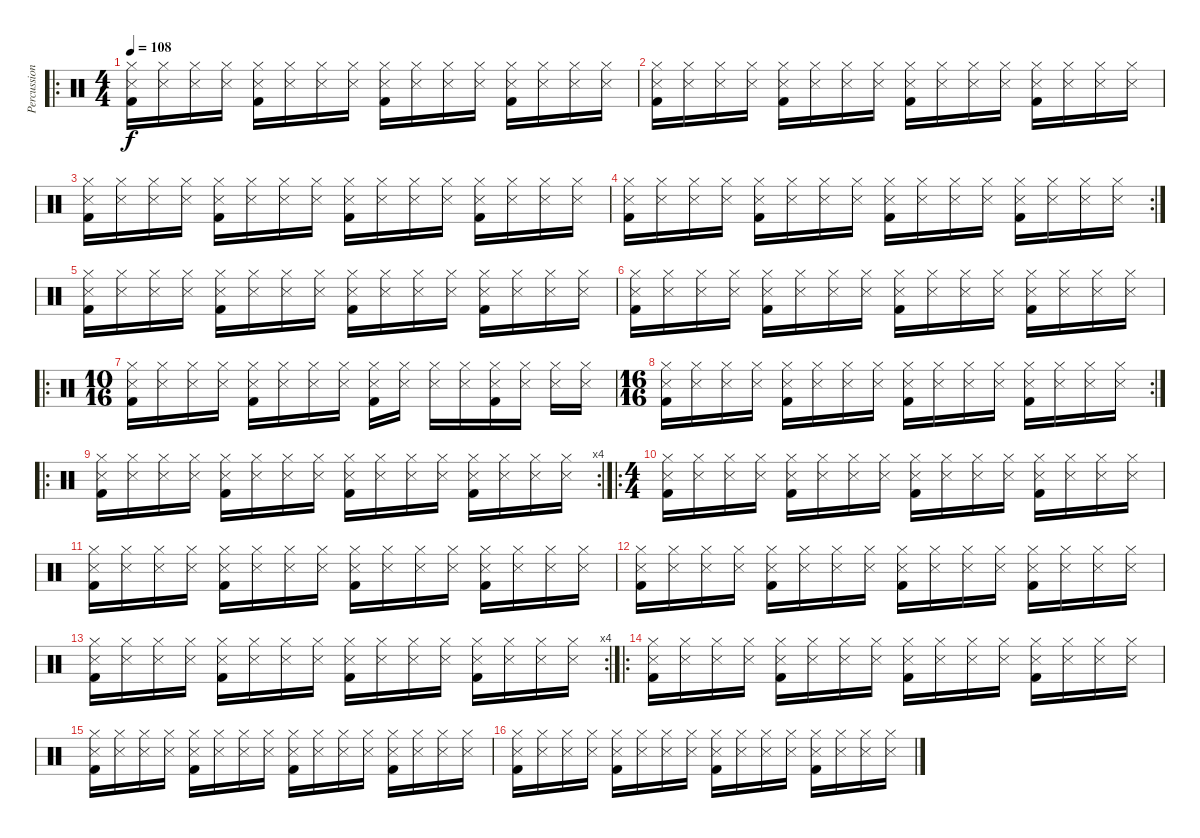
\track ("Percussions" "Percussion") {instrument percussion}
\staff {score}
\articulation defaults
\ro
\ts (4 4)
\tempo 108
\clef neutral
\ks c
("Kick (hit) 2" "Hi-Hat (closed)" "Snare (side stick) 3").16{dy f} ("Hi-Hat (closed)" "Snare (side stick) 3").16 ("Hi-Hat (closed)" "Snare (side stick) 3").16 ("Hi-Hat (closed)" "Snare (side stick) 3").16 ("Kick (hit) 2" "Hi-Hat (closed)" "Snare (side stick) 3").16 ("Hi-Hat (closed)" "Snare (side stick) 3").16 ("Hi-Hat (closed)" "Snare (side stick) 3").16 ("Hi-Hat (closed)" "Snare (side stick) 3").16 ("Kick (hit) 2" "Hi-Hat (closed)" "Snare (side stick) 3").16 ("Hi-Hat (closed)" "Snare (side stick) 3").16 ("Hi-Hat (closed)" "Snare (side stick) 3").16 ("Hi-Hat (closed)" "Snare (side stick) 3").16 ("Kick (hit) 2" "Hi-Hat (closed)" "Snare (side stick) 3").16 ("Hi-Hat (closed)" "Snare (side stick) 3").16 ("Hi-Hat (closed)" "Snare (side stick) 3").16 ("Hi-Hat (closed)" "Snare (side stick) 3").16 |
("Kick (hit) 2" "Hi-Hat (closed)" "Snare (side stick) 3").16 ("Hi-Hat (closed)" "Snare (side stick) 3").16 ("Hi-Hat (closed)" "Snare (side stick) 3").16 ("Hi-Hat (closed)" "Snare (side stick) 3").16 ("Kick (hit) 2" "Hi-Hat (closed)" "Snare (side stick) 3").16 ("Hi-Hat (closed)" "Snare (side stick) 3").16 ("Hi-Hat (closed)" "Snare (side stick) 3").16 ("Hi-Hat (closed)" "Snare (side stick) 3").16 ("Kick (hit) 2" "Hi-Hat (closed)" "Snare (side stick) 3").16 ("Hi-Hat (closed)" "Snare (side stick) 3").16 ("Hi-Hat (closed)" "Snare (side stick) 3").16 ("Hi-Hat (closed)" "Snare (side stick) 3").16 ("Kick (hit) 2" "Hi-Hat (closed)" "Snare (side stick) 3").16 ("Hi-Hat (closed)" "Snare (side stick) 3").16 ("Hi-Hat (closed)" "Snare (side stick) 3").16 ("Hi-Hat (closed)" "Snare (side stick) 3").16 |
("Kick (hit) 2" "Hi-Hat (closed)" "Snare (side stick) 3").16 ("Hi-Hat (closed)" "Snare (side stick) 3").16 ("Hi-Hat (closed)" "Snare (side stick) 3").16 ("Hi-Hat (closed)" "Snare (side stick) 3").16 ("Kick (hit) 2" "Hi-Hat (closed)" "Snare (side stick) 3").16 ("Hi-Hat (closed)" "Snare (side stick) 3").16 ("Hi-Hat (closed)" "Snare (side stick) 3").16 ("Hi-Hat (closed)" "Snare (side stick) 3").16 ("Kick (hit) 2" "Hi-Hat (closed)" "Snare (side stick) 3").16 ("Hi-Hat (closed)" "Snare (side stick) 3").16 ("Hi-Hat (closed)" "Snare (side stick) 3").16 ("Hi-Hat (closed)" "Snare (side stick) 3").16 ("Kick (hit) 2" "Hi-Hat (closed)" "Snare (side stick) 3").16 ("Hi-Hat (closed)" "Snare (side stick) 3").16 ("Hi-Hat (closed)" "Snare (side stick) 3").16 ("Hi-Hat (closed)" "Snare (side stick) 3").16 |
\rc 2
("Kick (hit) 2" "Hi-Hat (closed)" "Snare (side stick) 3").16 ("Hi-Hat (closed)" "Snare (side stick) 3").16 ("Hi-Hat (closed)" "Snare (side stick) 3").16 ("Hi-Hat (closed)" "Snare (side stick) 3").16 ("Kick (hit) 2" "Hi-Hat (closed)" "Snare (side stick) 3").16 ("Hi-Hat (closed)" "Snare (side stick) 3").16 ("Hi-Hat (closed)" "Snare (side stick) 3").16 ("Hi-Hat (closed)" "Snare (side stick) 3").16 ("Kick (hit) 2" "Hi-Hat (closed)" "Snare (side stick) 3").16 ("Hi-Hat (closed)" "Snare (side stick) 3").16 ("Hi-Hat (closed)" "Snare (side stick) 3").16 ("Hi-Hat (closed)" "Snare (side stick) 3").16 ("Kick (hit) 2" "Hi-Hat (closed)" "Snare (side stick) 3").16 ("Hi-Hat (closed)" "Snare (side stick) 3").16 ("Hi-Hat (closed)" "Snare (side stick) 3").16 ("Hi-Hat (closed)" "Snare (side stick) 3").16 |
("Kick (hit) 2" "Hi-Hat (closed)" "Snare (side stick) 3").16 ("Hi-Hat (closed)" "Snare (side stick) 3").16 ("Hi-Hat (closed)" "Snare (side stick) 3").16 ("Hi-Hat (closed)" "Snare (side stick) 3").16 ("Kick (hit) 2" "Hi-Hat (closed)" "Snare (side stick) 3").16 ("Hi-Hat (closed)" "Snare (side stick) 3").16 ("Hi-Hat (closed)" "Snare (side stick) 3").16 ("Hi-Hat (closed)" "Snare (side stick) 3").16 ("Kick (hit) 2" "Hi-Hat (closed)" "Snare (side stick) 3").16 ("Hi-Hat (closed)" "Snare (side stick) 3").16 ("Hi-Hat (closed)" "Snare (side stick) 3").16 ("Hi-Hat (closed)" "Snare (side stick) 3").16 ("Kick (hit) 2" "Hi-Hat (closed)" "Snare (side stick) 3").16 ("Hi-Hat (closed)" "Snare (side stick) 3").16 ("Hi-Hat (closed)" "Snare (side stick) 3").16 ("Hi-Hat (closed)" "Snare (side stick) 3").16 |
("Kick (hit) 2" "Hi-Hat (closed)" "Snare (side stick) 3").16 ("Hi-Hat (closed)" "Snare (side stick) 3").16 ("Hi-Hat (closed)" "Snare (side stick) 3").16 ("Hi-Hat (closed)" "Snare (side stick) 3").16 ("Kick (hit) 2" "Hi-Hat (closed)" "Snare (side stick) 3").16 ("Hi-Hat (closed)" "Snare (side stick) 3").16 ("Hi-Hat (closed)" "Snare (side stick) 3").16 ("Hi-Hat (closed)" "Snare (side stick) 3").16 ("Kick (hit) 2" "Hi-Hat (closed)" "Snare (side stick) 3").16 ("Hi-Hat (closed)" "Snare (side stick) 3").16 ("Hi-Hat (closed)" "Snare (side stick) 3").16 ("Hi-Hat (closed)" "Snare (side stick) 3").16 ("Kick (hit) 2" "Hi-Hat (closed)" "Snare (side stick) 3").16 ("Hi-Hat (closed)" "Snare (side stick) 3").16 ("Hi-Hat (closed)" "Snare (side stick) 3").16 ("Hi-Hat (closed)" "Snare (side stick) 3").16 |
\ro
\ts (10 16)
("Kick (hit) 2" "Hi-Hat (closed)" "Snare (side stick) 3").16 ("Hi-Hat (closed)" "Snare (side stick) 3").16 ("Hi-Hat (closed)" "Snare (side stick) 3").16 ("Hi-Hat (closed)" "Snare (side stick) 3").16 ("Kick (hit) 2" "Hi-Hat (closed)" "Snare (side stick) 3").16 ("Hi-Hat (closed)" "Snare (side stick) 3").16 ("Hi-Hat (closed)" "Snare (side stick) 3").16 ("Hi-Hat (closed)" "Snare (side stick) 3").16 ("Kick (hit) 2" "Hi-Hat (closed)" "Snare (side stick) 3").16 ("Hi-Hat (closed)" "Snare (side stick) 3").16 ("Hi-Hat (closed)" "Snare (side stick) 3").16 ("Hi-Hat (closed)" "Snare (side stick) 3").16 ("Kick (hit) 2" "Hi-Hat (closed)" "Snare (side stick) 3").16 ("Hi-Hat (closed)" "Snare (side stick) 3").16 ("Hi-Hat (closed)" "Snare (side stick) 3").16 ("Hi-Hat (closed)" "Snare (side stick) 3").16 |
\rc 2
\ts (16 16)
("Kick (hit) 2" "Hi-Hat (closed)" "Snare (side stick) 3").16 ("Hi-Hat (closed)" "Snare (side stick) 3").16 ("Hi-Hat (closed)" "Snare (side stick) 3").16 ("Hi-Hat (closed)" "Snare (side stick) 3").16 ("Kick (hit) 2" "Hi-Hat (closed)" "Snare (side stick) 3").16 ("Hi-Hat (closed)" "Snare (side stick) 3").16 ("Hi-Hat (closed)" "Snare (side stick) 3").16 ("Hi-Hat (closed)" "Snare (side stick) 3").16 ("Kick (hit) 2" "Hi-Hat (closed)" "Snare (side stick) 3").16 ("Hi-Hat (closed)" "Snare (side stick) 3").16 ("Hi-Hat (closed)" "Snare (side stick) 3").16 ("Hi-Hat (closed)" "Snare (side stick) 3").16 ("Kick (hit) 2" "Hi-Hat (closed)" "Snare (side stick) 3").16 ("Hi-Hat (closed)" "Snare (side stick) 3").16 ("Hi-Hat (closed)" "Snare (side stick) 3").16 ("Hi-Hat (closed)" "Snare (side stick) 3").16 |
\ro
\rc 4
("Kick (hit) 2" "Hi-Hat (closed)" "Snare (side stick) 3").16 ("Hi-Hat (closed)" "Snare (side stick) 3").16 ("Hi-Hat (closed)" "Snare (side stick) 3").16 ("Hi-Hat (closed)" "Snare (side stick) 3").16 ("Kick (hit) 2" "Hi-Hat (closed)" "Snare (side stick) 3").16 ("Hi-Hat (closed)" "Snare (side stick) 3").16 ("Hi-Hat (closed)" "Snare (side stick) 3").16 ("Hi-Hat (closed)" "Snare (side stick) 3").16 ("Kick (hit) 2" "Hi-Hat (closed)" "Snare (side stick) 3").16 ("Hi-Hat (closed)" "Snare (side stick) 3").16 ("Hi-Hat (closed)" "Snare (side stick) 3").16 ("Hi-Hat (closed)" "Snare (side stick) 3").16 ("Kick (hit) 2" "Hi-Hat (closed)" "Snare (side stick) 3").16 ("Hi-Hat (closed)" "Snare (side stick) 3").16 ("Hi-Hat (closed)" "Snare (side stick) 3").16 ("Hi-Hat (closed)" "Snare (side stick) 3").16 |
\ro
\ts (4 4)
("Kick (hit) 2" "Hi-Hat (closed)" "Snare (side stick) 3").16 ("Hi-Hat (closed)" "Snare (side stick) 3").16 ("Hi-Hat (closed)" "Snare (side stick) 3").16 ("Hi-Hat (closed)" "Snare (side stick) 3").16 ("Kick (hit) 2" "Hi-Hat (closed)" "Snare (side stick) 3").16 ("Hi-Hat (closed)" "Snare (side stick) 3").16 ("Hi-Hat (closed)" "Snare (side stick) 3").16 ("Hi-Hat (closed)" "Snare (side stick) 3").16 ("Kick (hit) 2" "Hi-Hat (closed)" "Snare (side stick) 3").16 ("Hi-Hat (closed)" "Snare (side stick) 3").16 ("Hi-Hat (closed)" "Snare (side stick) 3").16 ("Hi-Hat (closed)" "Snare (side stick) 3").16 ("Kick (hit) 2" "Hi-Hat (closed)" "Snare (side stick) 3").16 ("Hi-Hat (closed)" "Snare (side stick) 3").16 ("Hi-Hat (closed)" "Snare (side stick) 3").16 ("Hi-Hat (closed)" "Snare (side stick) 3").16 |
("Kick (hit) 2" "Hi-Hat (closed)" "Snare (side stick) 3").16 ("Hi-Hat (closed)" "Snare (side stick) 3").16 ("Hi-Hat (closed)" "Snare (side stick) 3").16 ("Hi-Hat (closed)" "Snare (side stick) 3").16 ("Kick (hit) 2" "Hi-Hat (closed)" "Snare (side stick) 3").16 ("Hi-Hat (closed)" "Snare (side stick) 3").16 ("Hi-Hat (closed)" "Snare (side stick) 3").16 ("Hi-Hat (closed)" "Snare (side stick) 3").16 ("Kick (hit) 2" "Hi-Hat (closed)" "Snare (side stick) 3").16 ("Hi-Hat (closed)" "Snare (side stick) 3").16 ("Hi-Hat (closed)" "Snare (side stick) 3").16 ("Hi-Hat (closed)" "Snare (side stick) 3").16 ("Kick (hit) 2" "Hi-Hat (closed)" "Snare (side stick) 3").16 ("Hi-Hat (closed)" "Snare (side stick) 3").16 ("Hi-Hat (closed)" "Snare (side stick) 3").16 ("Hi-Hat (closed)" "Snare (side stick) 3").16 |
("Kick (hit) 2" "Hi-Hat (closed)" "Snare (side stick) 3").16 ("Hi-Hat (closed)" "Snare (side stick) 3").16 ("Hi-Hat (closed)" "Snare (side stick) 3").16 ("Hi-Hat (closed)" "Snare (side stick) 3").16 ("Kick (hit) 2" "Hi-Hat (closed)" "Snare (side stick) 3").16 ("Hi-Hat (closed)" "Snare (side stick) 3").16 ("Hi-Hat (closed)" "Snare (side stick) 3").16 ("Hi-Hat (closed)" "Snare (side stick) 3").16 ("Kick (hit) 2" "Hi-Hat (closed)" "Snare (side stick) 3").16 ("Hi-Hat (closed)" "Snare (side stick) 3").16 ("Hi-Hat (closed)" "Snare (side stick) 3").16 ("Hi-Hat (closed)" "Snare (side stick) 3").16 ("Kick (hit) 2" "Hi-Hat (closed)" "Snare (side stick) 3").16 ("Hi-Hat (closed)" "Snare (side stick) 3").16 ("Hi-Hat (closed)" "Snare (side stick) 3").16 ("Hi-Hat (closed)" "Snare (side stick) 3").16 |
\rc 4
("Kick (hit) 2" "Hi-Hat (closed)" "Snare (side stick) 3").16 ("Hi-Hat (closed)" "Snare (side stick) 3").16 ("Hi-Hat (closed)" "Snare (side stick) 3").16 ("Hi-Hat (closed)" "Snare (side stick) 3").16 ("Kick (hit) 2" "Hi-Hat (closed)" "Snare (side stick) 3").16 ("Hi-Hat (closed)" "Snare (side stick) 3").16 ("Hi-Hat (closed)" "Snare (side stick) 3").16 ("Hi-Hat (closed)" "Snare (side stick) 3").16 ("Kick (hit) 2" "Hi-Hat (closed)" "Snare (side stick) 3").16 ("Hi-Hat (closed)" "Snare (side stick) 3").16 ("Hi-Hat (closed)" "Snare (side stick) 3").16 ("Hi-Hat (closed)" "Snare (side stick) 3").16 ("Kick (hit) 2" "Hi-Hat (closed)" "Snare (side stick) 3").16 ("Hi-Hat (closed)" "Snare (side stick) 3").16 ("Hi-Hat (closed)" "Snare (side stick) 3").16 ("Hi-Hat (closed)" "Snare (side stick) 3").16 |
\ro
("Kick (hit) 2" "Hi-Hat (closed)" "Snare (side stick) 3").16 ("Hi-Hat (closed)" "Snare (side stick) 3").16 ("Hi-Hat (closed)" "Snare (side stick) 3").16 ("Hi-Hat (closed)" "Snare (side stick) 3").16 ("Kick (hit) 2" "Hi-Hat (closed)" "Snare (side stick) 3").16 ("Hi-Hat (closed)" "Snare (side stick) 3").16 ("Hi-Hat (closed)" "Snare (side stick) 3").16 ("Hi-Hat (closed)" "Snare (side stick) 3").16 ("Kick (hit) 2" "Hi-Hat (closed)" "Snare (side stick) 3").16 ("Hi-Hat (closed)" "Snare (side stick) 3").16 ("Hi-Hat (closed)" "Snare (side stick) 3").16 ("Hi-Hat (closed)" "Snare (side stick) 3").16 ("Kick (hit) 2" "Hi-Hat (closed)" "Snare (side stick) 3").16 ("Hi-Hat (closed)" "Snare (side stick) 3").16 ("Hi-Hat (closed)" "Snare (side stick) 3").16 ("Hi-Hat (closed)" "Snare (side stick) 3").16 |
("Kick (hit) 2" "Hi-Hat (closed)" "Snare (side stick) 3").16 ("Hi-Hat (closed)" "Snare (side stick) 3").16 ("Hi-Hat (closed)" "Snare (side stick) 3").16 ("Hi-Hat (closed)" "Snare (side stick) 3").16 ("Kick (hit) 2" "Hi-Hat (closed)" "Snare (side stick) 3").16 ("Hi-Hat (closed)" "Snare (side stick) 3").16 ("Hi-Hat (closed)" "Snare (side stick) 3").16 ("Hi-Hat (closed)" "Snare (side stick) 3").16 ("Kick (hit) 2" "Hi-Hat (closed)" "Snare (side stick) 3").16 ("Hi-Hat (closed)" "Snare (side stick) 3").16 ("Hi-Hat (closed)" "Snare (side stick) 3").16 ("Hi-Hat (closed)" "Snare (side stick) 3").16 ("Kick (hit) 2" "Hi-Hat (closed)" "Snare (side stick) 3").16 ("Hi-Hat (closed)" "Snare (side stick) 3").16 ("Hi-Hat (closed)" "Snare (side stick) 3").16 ("Hi-Hat (closed)" "Snare (side stick) 3").16 |
("Kick (hit) 2" "Hi-Hat (closed)" "Snare (side stick) 3").16 ("Hi-Hat (closed)" "Snare (side stick) 3").16 ("Hi-Hat (closed)" "Snare (side stick) 3").16 ("Hi-Hat (closed)" "Snare (side stick) 3").16 ("Kick (hit) 2" "Hi-Hat (closed)" "Snare (side stick) 3").16 ("Hi-Hat (closed)" "Snare (side stick) 3").16 ("Hi-Hat (closed)" "Snare (side stick) 3").16 ("Hi-Hat (closed)" "Snare (side stick) 3").16 ("Kick (hit) 2" "Hi-Hat (closed)" "Snare (side stick) 3").16 ("Hi-Hat (closed)" "Snare (side stick) 3").16 ("Hi-Hat (closed)" "Snare (side stick) 3").16 ("Hi-Hat (closed)" "Snare (side stick) 3").16 ("Kick (hit) 2" "Hi-Hat (closed)" "Snare (side stick) 3").16 ("Hi-Hat (closed)" "Snare (side stick) 3").16 ("Hi-Hat (closed)" "Snare (side stick) 3").16 ("Hi-Hat (closed)" "Snare (side stick) 3").16
